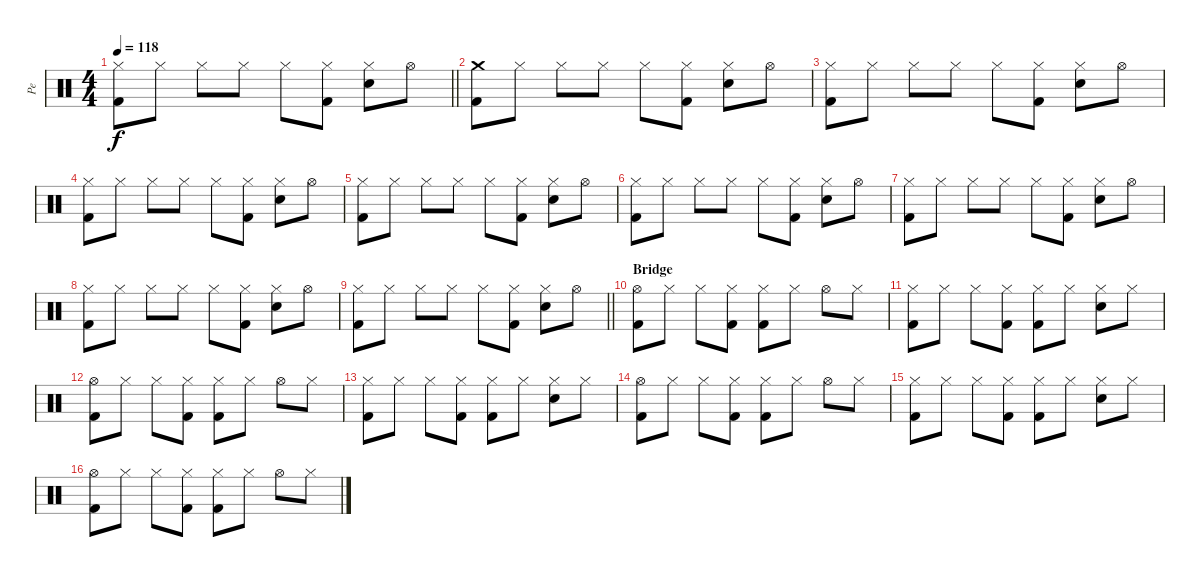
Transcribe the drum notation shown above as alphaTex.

\track ("Pe" "Pe") {instrument percussion}
\staff {score}
\articulation defaults
\ts (4 4)
\tempo 118
\clef neutral
\barLineRight lightlight
\ks c
("Hi-Hat (closed)" "Kick (hit) 2").8{dy f} "Hi-Hat (closed)".8 "Hi-Hat (closed)".8 "Hi-Hat (closed)".8 "Hi-Hat (closed)".8 ("Hi-Hat (closed)" "Kick (hit) 2").8 ("Hi-Hat (closed)" "Electric Snare (hit)").8 "Hi-Hat (open)".8 |
("Crash medium (hit)" "Kick (hit) 2").8 "Hi-Hat (closed)".8 "Hi-Hat (closed)".8 "Hi-Hat (closed)".8 "Hi-Hat (closed)".8 ("Hi-Hat (closed)" "Kick (hit) 2").8 ("Hi-Hat (closed)" "Electric Snare (hit)").8 "Hi-Hat (open)".8 |
("Hi-Hat (closed)" "Kick (hit) 2").8 "Hi-Hat (closed)".8 "Hi-Hat (closed)".8 "Hi-Hat (closed)".8 "Hi-Hat (closed)".8 ("Hi-Hat (closed)" "Kick (hit) 2").8 ("Hi-Hat (closed)" "Electric Snare (hit)").8 "Hi-Hat (open)".8 |
("Hi-Hat (closed)" "Kick (hit) 2").8 "Hi-Hat (closed)".8 "Hi-Hat (closed)".8 "Hi-Hat (closed)".8 "Hi-Hat (closed)".8 ("Hi-Hat (closed)" "Kick (hit) 2").8 ("Hi-Hat (closed)" "Electric Snare (hit)").8 "Hi-Hat (open)".8 |
("Hi-Hat (closed)" "Kick (hit) 2").8 "Hi-Hat (closed)".8 "Hi-Hat (closed)".8 "Hi-Hat (closed)".8 "Hi-Hat (closed)".8 ("Hi-Hat (closed)" "Kick (hit) 2").8 ("Hi-Hat (closed)" "Electric Snare (hit)").8 "Hi-Hat (open)".8 |
("Hi-Hat (closed)" "Kick (hit) 2").8 "Hi-Hat (closed)".8 "Hi-Hat (closed)".8 "Hi-Hat (closed)".8 "Hi-Hat (closed)".8 ("Hi-Hat (closed)" "Kick (hit) 2").8 ("Hi-Hat (closed)" "Electric Snare (hit)").8 "Hi-Hat (open)".8 |
("Hi-Hat (closed)" "Kick (hit) 2").8 "Hi-Hat (closed)".8 "Hi-Hat (closed)".8 "Hi-Hat (closed)".8 "Hi-Hat (closed)".8 ("Hi-Hat (closed)" "Kick (hit) 2").8 ("Hi-Hat (closed)" "Electric Snare (hit)").8 "Hi-Hat (open)".8 |
("Hi-Hat (closed)" "Kick (hit) 2").8 "Hi-Hat (closed)".8 "Hi-Hat (closed)".8 "Hi-Hat (closed)".8 "Hi-Hat (closed)".8 ("Hi-Hat (closed)" "Kick (hit) 2").8 ("Hi-Hat (closed)" "Electric Snare (hit)").8 "Hi-Hat (open)".8 |
\barLineRight lightlight
("Hi-Hat (closed)" "Kick (hit) 2").8 "Hi-Hat (closed)".8 "Hi-Hat (closed)".8 "Hi-Hat (closed)".8 "Hi-Hat (closed)".8 ("Hi-Hat (closed)" "Kick (hit) 2").8 ("Hi-Hat (closed)" "Electric Snare (hit)").8 "Hi-Hat (open)".8 |
\section ("" "Bridge")
("Hi-Hat (open)" "Kick (hit) 2").8 "Hi-Hat (closed)".8 "Hi-Hat (closed)".8 ("Hi-Hat (closed)" "Kick (hit) 2").8 ("Hi-Hat (closed)" "Kick (hit) 2").8 "Hi-Hat (closed)".8 "Hi-Hat (open)".8 "Hi-Hat (closed)".8 |
("Hi-Hat (closed)" "Kick (hit) 2").8 "Hi-Hat (closed)".8 "Hi-Hat (closed)".8 ("Hi-Hat (closed)" "Kick (hit) 2").8 ("Hi-Hat (closed)" "Kick (hit) 2").8 "Hi-Hat (closed)".8 ("Hi-Hat (closed)" "Electric Snare (hit)").8 "Hi-Hat (closed)".8 |
("Hi-Hat (open)" "Kick (hit) 2").8 "Hi-Hat (closed)".8 "Hi-Hat (closed)".8 ("Hi-Hat (closed)" "Kick (hit) 2").8 ("Hi-Hat (closed)" "Kick (hit) 2").8 "Hi-Hat (closed)".8 "Hi-Hat (open)".8 "Hi-Hat (closed)".8 |
("Hi-Hat (closed)" "Kick (hit) 2").8 "Hi-Hat (closed)".8 "Hi-Hat (closed)".8 ("Hi-Hat (closed)" "Kick (hit) 2").8 ("Hi-Hat (closed)" "Kick (hit) 2").8 "Hi-Hat (closed)".8 ("Hi-Hat (closed)" "Electric Snare (hit)").8 "Hi-Hat (closed)".8 |
("Hi-Hat (open)" "Kick (hit) 2").8 "Hi-Hat (closed)".8 "Hi-Hat (closed)".8 ("Hi-Hat (closed)" "Kick (hit) 2").8 ("Hi-Hat (closed)" "Kick (hit) 2").8 "Hi-Hat (closed)".8 "Hi-Hat (open)".8 "Hi-Hat (closed)".8 |
("Hi-Hat (closed)" "Kick (hit) 2").8 "Hi-Hat (closed)".8 "Hi-Hat (closed)".8 ("Hi-Hat (closed)" "Kick (hit) 2").8 ("Hi-Hat (closed)" "Kick (hit) 2").8 "Hi-Hat (closed)".8 ("Hi-Hat (closed)" "Electric Snare (hit)").8 "Hi-Hat (closed)".8 |
("Hi-Hat (open)" "Kick (hit) 2").8 "Hi-Hat (closed)".8 "Hi-Hat (closed)".8 ("Hi-Hat (closed)" "Kick (hit) 2").8 ("Hi-Hat (closed)" "Kick (hit) 2").8 "Hi-Hat (closed)".8 "Hi-Hat (open)".8 "Hi-Hat (closed)".8
